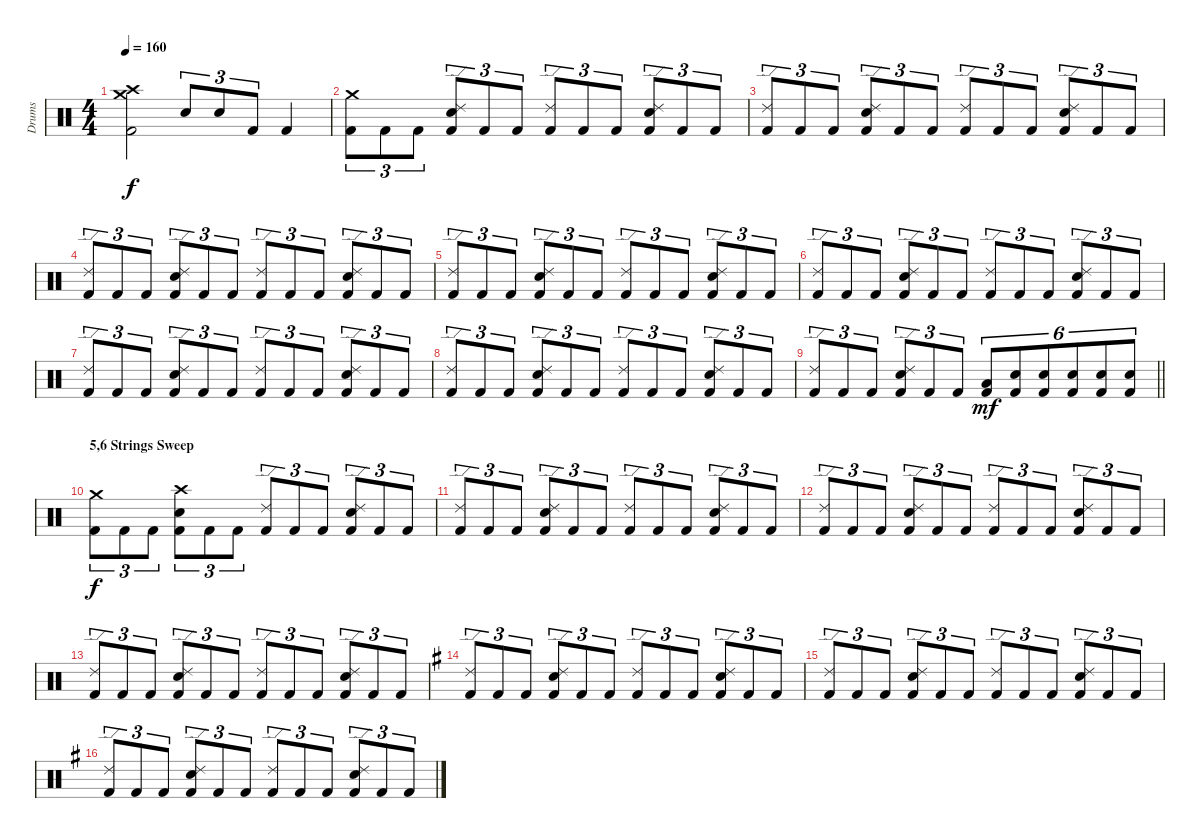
\track ("Drums" "Drums") {instrument percussion}
\staff {score}
\articulation defaults
\ts (4 4)
\tempo 160
\clef neutral
\ks c
("Crash high (hit)" "Crash medium (hit)" "Kick (hit) 2").2{dy f} "Snare (hit) 2".8{tu (3 2)} "Snare (hit) 2".8{tu (3 2)} "Kick (hit) 2".8{tu (3 2)} "Kick (hit) 2".4 |
("Crash medium (hit)" "Kick (hit) 2").8{tu (3 2)} "Kick (hit) 2".8{tu (3 2)} "Kick (hit) 2".8{tu (3 2)} ("Ride (edge) 2" "Snare (hit) 2" "Kick (hit) 2").8{tu (3 2)} "Kick (hit) 2".8{tu (3 2)} "Kick (hit) 2".8{tu (3 2)} ("Ride (edge) 2" "Kick (hit) 2").8{tu (3 2)} "Kick (hit) 2".8{tu (3 2)} "Kick (hit) 2".8{tu (3 2)} ("Ride (edge) 2" "Snare (hit) 2" "Kick (hit) 2").8{tu (3 2)} "Kick (hit) 2".8{tu (3 2)} "Kick (hit) 2".8{tu (3 2)} |
("Ride (edge) 2" "Kick (hit) 2").8{tu (3 2)} "Kick (hit) 2".8{tu (3 2)} "Kick (hit) 2".8{tu (3 2)} ("Ride (edge) 2" "Snare (hit) 2" "Kick (hit) 2").8{tu (3 2)} "Kick (hit) 2".8{tu (3 2)} "Kick (hit) 2".8{tu (3 2)} ("Ride (edge) 2" "Kick (hit) 2").8{tu (3 2)} "Kick (hit) 2".8{tu (3 2)} "Kick (hit) 2".8{tu (3 2)} ("Ride (edge) 2" "Snare (hit) 2" "Kick (hit) 2").8{tu (3 2)} "Kick (hit) 2".8{tu (3 2)} "Kick (hit) 2".8{tu (3 2)} |
("Ride (edge) 2" "Kick (hit) 2").8{tu (3 2)} "Kick (hit) 2".8{tu (3 2)} "Kick (hit) 2".8{tu (3 2)} ("Ride (edge) 2" "Snare (hit) 2" "Kick (hit) 2").8{tu (3 2)} "Kick (hit) 2".8{tu (3 2)} "Kick (hit) 2".8{tu (3 2)} ("Ride (edge) 2" "Kick (hit) 2").8{tu (3 2)} "Kick (hit) 2".8{tu (3 2)} "Kick (hit) 2".8{tu (3 2)} ("Ride (edge) 2" "Snare (hit) 2" "Kick (hit) 2").8{tu (3 2)} "Kick (hit) 2".8{tu (3 2)} "Kick (hit) 2".8{tu (3 2)} |
("Ride (edge) 2" "Kick (hit) 2").8{tu (3 2)} "Kick (hit) 2".8{tu (3 2)} "Kick (hit) 2".8{tu (3 2)} ("Ride (edge) 2" "Snare (hit) 2" "Kick (hit) 2").8{tu (3 2)} "Kick (hit) 2".8{tu (3 2)} "Kick (hit) 2".8{tu (3 2)} ("Ride (edge) 2" "Kick (hit) 2").8{tu (3 2)} "Kick (hit) 2".8{tu (3 2)} "Kick (hit) 2".8{tu (3 2)} ("Ride (edge) 2" "Snare (hit) 2" "Kick (hit) 2").8{tu (3 2)} "Kick (hit) 2".8{tu (3 2)} "Kick (hit) 2".8{tu (3 2)} |
("Ride (edge) 2" "Kick (hit) 2").8{tu (3 2)} "Kick (hit) 2".8{tu (3 2)} "Kick (hit) 2".8{tu (3 2)} ("Ride (edge) 2" "Snare (hit) 2" "Kick (hit) 2").8{tu (3 2)} "Kick (hit) 2".8{tu (3 2)} "Kick (hit) 2".8{tu (3 2)} ("Ride (edge) 2" "Kick (hit) 2").8{tu (3 2)} "Kick (hit) 2".8{tu (3 2)} "Kick (hit) 2".8{tu (3 2)} ("Ride (edge) 2" "Snare (hit) 2" "Kick (hit) 2").8{tu (3 2)} "Kick (hit) 2".8{tu (3 2)} "Kick (hit) 2".8{tu (3 2)} |
("Ride (edge) 2" "Kick (hit) 2").8{tu (3 2)} "Kick (hit) 2".8{tu (3 2)} "Kick (hit) 2".8{tu (3 2)} ("Ride (edge) 2" "Snare (hit) 2" "Kick (hit) 2").8{tu (3 2)} "Kick (hit) 2".8{tu (3 2)} "Kick (hit) 2".8{tu (3 2)} ("Ride (edge) 2" "Kick (hit) 2").8{tu (3 2)} "Kick (hit) 2".8{tu (3 2)} "Kick (hit) 2".8{tu (3 2)} ("Ride (edge) 2" "Snare (hit) 2" "Kick (hit) 2").8{tu (3 2)} "Kick (hit) 2".8{tu (3 2)} "Kick (hit) 2".8{tu (3 2)} |
("Ride (edge) 2" "Kick (hit) 2").8{tu (3 2)} "Kick (hit) 2".8{tu (3 2)} "Kick (hit) 2".8{tu (3 2)} ("Ride (edge) 2" "Snare (hit) 2" "Kick (hit) 2").8{tu (3 2)} "Kick (hit) 2".8{tu (3 2)} "Kick (hit) 2".8{tu (3 2)} ("Ride (edge) 2" "Kick (hit) 2").8{tu (3 2)} "Kick (hit) 2".8{tu (3 2)} "Kick (hit) 2".8{tu (3 2)} ("Ride (edge) 2" "Snare (hit) 2" "Kick (hit) 2").8{tu (3 2)} "Kick (hit) 2".8{tu (3 2)} "Kick (hit) 2".8{tu (3 2)} |
\barLineRight lightlight
("Ride (edge) 2" "Kick (hit) 2").8{tu (3 2)} "Kick (hit) 2".8{tu (3 2)} "Kick (hit) 2".8{tu (3 2)} ("Ride (edge) 2" "Snare (hit) 2" "Kick (hit) 2").8{tu (3 2)} "Kick (hit) 2".8{tu (3 2)} "Kick (hit) 2".8{tu (3 2)} ("Low Tom (hit)" "Kick (hit) 2").8{tu (6 4) dy mf} ("Snare (hit) 2" "Kick (hit) 2").8{tu (6 4)} ("Snare (hit) 2" "Kick (hit) 2").8{tu (6 4)} ("Snare (hit) 2" "Kick (hit) 2").8{tu (6 4)} ("Snare (hit) 2" "Kick (hit) 2").8{tu (6 4)} ("Snare (hit) 2" "Kick (hit) 2").8{tu (6 4)} |
\section ("" "5,6 Strings Sweep ")
("Crash medium (hit)" "Kick (hit) 2").8{tu (3 2) dy f} "Kick (hit) 2".8{tu (3 2)} "Kick (hit) 2".8{tu (3 2)} ("Crash high (hit)" "Snare (hit) 2" "Kick (hit) 2").8{tu (3 2)} "Kick (hit) 2".8{tu (3 2)} "Kick (hit) 2".8{tu (3 2)} ("Ride (edge) 2" "Kick (hit) 2").8{tu (3 2)} "Kick (hit) 2".8{tu (3 2)} "Kick (hit) 2".8{tu (3 2)} ("Ride (edge) 2" "Snare (hit) 2" "Kick (hit) 2").8{tu (3 2)} "Kick (hit) 2".8{tu (3 2)} "Kick (hit) 2".8{tu (3 2)} |
("Ride (edge) 2" "Kick (hit) 2").8{tu (3 2)} "Kick (hit) 2".8{tu (3 2)} "Kick (hit) 2".8{tu (3 2)} ("Ride (edge) 2" "Snare (hit) 2" "Kick (hit) 2").8{tu (3 2)} "Kick (hit) 2".8{tu (3 2)} "Kick (hit) 2".8{tu (3 2)} ("Ride (edge) 2" "Kick (hit) 2").8{tu (3 2)} "Kick (hit) 2".8{tu (3 2)} "Kick (hit) 2".8{tu (3 2)} ("Ride (edge) 2" "Snare (hit) 2" "Kick (hit) 2").8{tu (3 2)} "Kick (hit) 2".8{tu (3 2)} "Kick (hit) 2".8{tu (3 2)} |
("Ride (edge) 2" "Kick (hit) 2").8{tu (3 2)} "Kick (hit) 2".8{tu (3 2)} "Kick (hit) 2".8{tu (3 2)} ("Ride (edge) 2" "Snare (hit) 2" "Kick (hit) 2").8{tu (3 2)} "Kick (hit) 2".8{tu (3 2)} "Kick (hit) 2".8{tu (3 2)} ("Ride (edge) 2" "Kick (hit) 2").8{tu (3 2)} "Kick (hit) 2".8{tu (3 2)} "Kick (hit) 2".8{tu (3 2)} ("Ride (edge) 2" "Snare (hit) 2" "Kick (hit) 2").8{tu (3 2)} "Kick (hit) 2".8{tu (3 2)} "Kick (hit) 2".8{tu (3 2)} |
("Ride (edge) 2" "Kick (hit) 2").8{tu (3 2)} "Kick (hit) 2".8{tu (3 2)} "Kick (hit) 2".8{tu (3 2)} ("Ride (edge) 2" "Snare (hit) 2" "Kick (hit) 2").8{tu (3 2)} "Kick (hit) 2".8{tu (3 2)} "Kick (hit) 2".8{tu (3 2)} ("Ride (edge) 2" "Kick (hit) 2").8{tu (3 2)} "Kick (hit) 2".8{tu (3 2)} "Kick (hit) 2".8{tu (3 2)} ("Ride (edge) 2" "Snare (hit) 2" "Kick (hit) 2").8{tu (3 2)} "Kick (hit) 2".8{tu (3 2)} "Kick (hit) 2".8{tu (3 2)} |
\ks eminor
("Ride (edge) 2" "Kick (hit) 2").8{tu (3 2)} "Kick (hit) 2".8{tu (3 2)} "Kick (hit) 2".8{tu (3 2)} ("Ride (edge) 2" "Snare (hit) 2" "Kick (hit) 2").8{tu (3 2)} "Kick (hit) 2".8{tu (3 2)} "Kick (hit) 2".8{tu (3 2)} ("Ride (edge) 2" "Kick (hit) 2").8{tu (3 2)} "Kick (hit) 2".8{tu (3 2)} "Kick (hit) 2".8{tu (3 2)} ("Ride (edge) 2" "Snare (hit) 2" "Kick (hit) 2").8{tu (3 2)} "Kick (hit) 2".8{tu (3 2)} "Kick (hit) 2".8{tu (3 2)} |
("Ride (edge) 2" "Kick (hit) 2").8{tu (3 2)} "Kick (hit) 2".8{tu (3 2)} "Kick (hit) 2".8{tu (3 2)} ("Ride (edge) 2" "Snare (hit) 2" "Kick (hit) 2").8{tu (3 2)} "Kick (hit) 2".8{tu (3 2)} "Kick (hit) 2".8{tu (3 2)} ("Ride (edge) 2" "Kick (hit) 2").8{tu (3 2)} "Kick (hit) 2".8{tu (3 2)} "Kick (hit) 2".8{tu (3 2)} ("Ride (edge) 2" "Snare (hit) 2" "Kick (hit) 2").8{tu (3 2)} "Kick (hit) 2".8{tu (3 2)} "Kick (hit) 2".8{tu (3 2)} |
("Ride (edge) 2" "Kick (hit) 2").8{tu (3 2)} "Kick (hit) 2".8{tu (3 2)} "Kick (hit) 2".8{tu (3 2)} ("Ride (edge) 2" "Snare (hit) 2" "Kick (hit) 2").8{tu (3 2)} "Kick (hit) 2".8{tu (3 2)} "Kick (hit) 2".8{tu (3 2)} ("Ride (edge) 2" "Kick (hit) 2").8{tu (3 2)} "Kick (hit) 2".8{tu (3 2)} "Kick (hit) 2".8{tu (3 2)} ("Ride (edge) 2" "Snare (hit) 2" "Kick (hit) 2").8{tu (3 2)} "Kick (hit) 2".8{tu (3 2)} "Kick (hit) 2".8{tu (3 2)}
